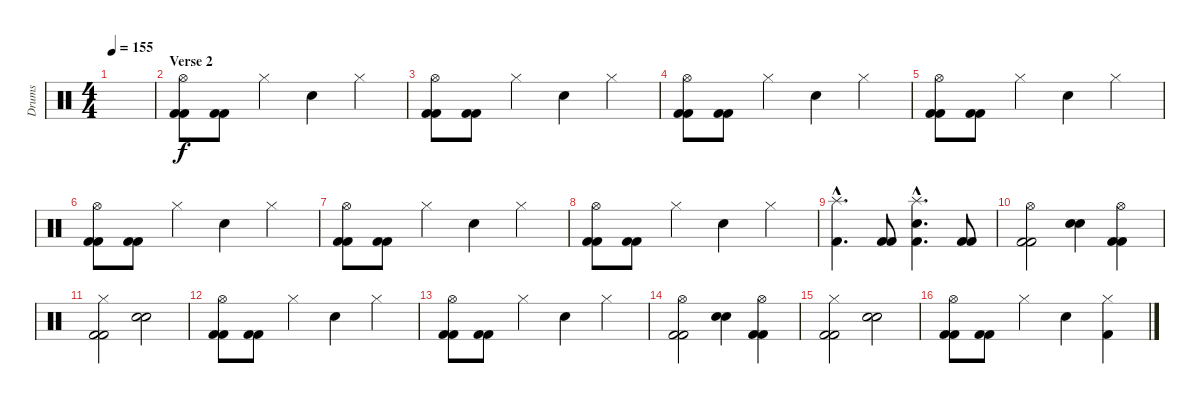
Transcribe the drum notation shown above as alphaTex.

\track ("Drums" "Drums") {instrument percussion}
\staff {score}
\articulation defaults
\ts (4 4)
\tempo 155
\clef neutral
\ks c
|
\section ("" "Verse 2")
("Hi-Hat (open)" "Kick (hit) 2" "Kick (hit) 2").8 ("Kick (hit) 2" "Kick (hit) 2").8 "Hi-Hat (closed)".4 "Snare (hit) 2".4 "Hi-Hat (closed)".4 |
("Hi-Hat (open)" "Kick (hit) 2" "Kick (hit) 2").8 ("Kick (hit) 2" "Kick (hit) 2").8 "Hi-Hat (closed)".4 "Snare (hit) 2".4 "Hi-Hat (closed)".4 |
("Hi-Hat (open)" "Kick (hit) 2" "Kick (hit) 2").8 ("Kick (hit) 2" "Kick (hit) 2").8 "Hi-Hat (closed)".4 "Snare (hit) 2".4 "Hi-Hat (closed)".4 |
("Hi-Hat (open)" "Kick (hit) 2" "Kick (hit) 2").8 ("Kick (hit) 2" "Kick (hit) 2").8 "Hi-Hat (closed)".4 "Snare (hit) 2".4 "Hi-Hat (closed)".4 |
("Hi-Hat (open)" "Kick (hit) 2" "Kick (hit) 2").8 ("Kick (hit) 2" "Kick (hit) 2").8 "Hi-Hat (closed)".4 "Snare (hit) 2".4 "Hi-Hat (closed)".4 |
("Hi-Hat (open)" "Kick (hit) 2" "Kick (hit) 2").8 ("Kick (hit) 2" "Kick (hit) 2").8 "Hi-Hat (closed)".4 "Snare (hit) 2".4 "Hi-Hat (closed)".4 |
("Hi-Hat (open)" "Kick (hit) 2" "Kick (hit) 2").8 ("Kick (hit) 2" "Kick (hit) 2").8 "Hi-Hat (closed)".4 "Snare (hit) 2".4 "Hi-Hat (closed)".4 |
("Splash (hit)"{hac} "Kick (hit) 2"{hac}).4{d} ("Kick (hit) 2" "Kick (hit) 2").8 ("Splash (hit)"{hac} "Snare (hit) 2"{hac} "Kick (hit) 2"{hac}).4{d} ("Kick (hit) 2" "Kick (hit) 2").8 |
("Hi-Hat (open)" "Kick (hit) 2" "Kick (hit) 2").2 ("Snare (hit) 2" "Snare (hit) 2").4 ("Hi-Hat (open)" "Kick (hit) 2" "Kick (hit) 2").4 |
("Hi-Hat (closed)" "Kick (hit) 2" "Kick (hit) 2").2 ("Snare (hit) 2" "Snare (hit) 2").2 |
("Hi-Hat (open)" "Kick (hit) 2" "Kick (hit) 2").8 ("Kick (hit) 2" "Kick (hit) 2").8 "Hi-Hat (closed)".4 "Snare (hit) 2".4 "Hi-Hat (closed)".4 |
("Hi-Hat (open)" "Kick (hit) 2" "Kick (hit) 2").8 ("Kick (hit) 2" "Kick (hit) 2").8 "Hi-Hat (closed)".4 "Snare (hit) 2".4 "Hi-Hat (closed)".4 |
("Hi-Hat (open)" "Kick (hit) 2" "Kick (hit) 2").2 ("Snare (hit) 2" "Snare (hit) 2").4 ("Hi-Hat (open)" "Kick (hit) 2" "Kick (hit) 2").4 |
("Hi-Hat (closed)" "Kick (hit) 2" "Kick (hit) 2").2 ("Snare (hit) 2" "Snare (hit) 2").2 |
("Hi-Hat (open)" "Kick (hit) 2" "Kick (hit) 2").8 ("Kick (hit) 2" "Kick (hit) 2").8 "Hi-Hat (closed)".4 "Snare (hit) 2".4 ("Hi-Hat (closed)" "Kick (hit) 2").4
